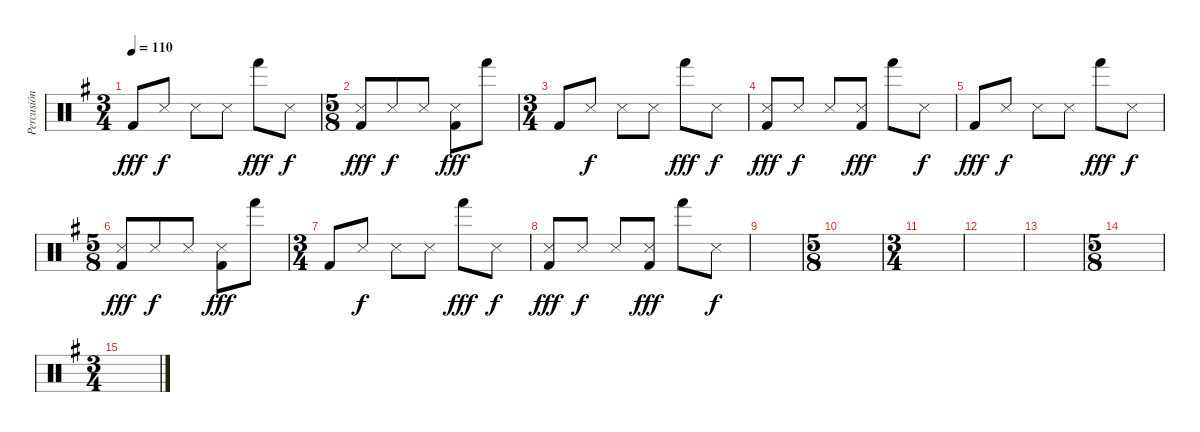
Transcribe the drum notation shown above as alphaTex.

\track ("Percusión" "Percusión") {instrument percussion}
\staff {score}
\articulation defaults
\ts (3 4)
\tempo 110
\clef neutral
\ks g "Kick (hit) 2".8{dy fff} "Metronome (hit)".8{dy f} "Metronome (hit)".8 "Metronome (hit)".8 "Hand (hit)".8{dy fff} "Metronome (hit)".8{dy f}
|
\ts (5 8)
("Metronome (hit)" "Kick (hit) 2").8{dy fff} "Metronome (hit)".8{dy f} "Metronome (hit)".8 ("Metronome (hit)" "Kick (hit) 2").8{dy fff} "Hand (hit)".8 |
\ts (3 4)
"Kick (hit) 2".8 "Metronome (hit)".8{dy f} "Metronome (hit)".8 "Metronome (hit)".8 "Hand (hit)".8{dy fff} "Metronome (hit)".8{dy f} |
("Metronome (hit)" "Kick (hit) 2").8{dy fff} "Metronome (hit)".8{dy f} "Metronome (hit)".8 ("Metronome (hit)" "Kick (hit) 2").8{dy fff} "Hand (hit)".8 "Metronome (hit)".8{dy f} |
"Kick (hit) 2".8{dy fff} "Metronome (hit)".8{dy f} "Metronome (hit)".8 "Metronome (hit)".8 "Hand (hit)".8{dy fff} "Metronome (hit)".8{dy f} |
\ts (5 8)
("Metronome (hit)" "Kick (hit) 2").8{dy fff} "Metronome (hit)".8{dy f} "Metronome (hit)".8 ("Metronome (hit)" "Kick (hit) 2").8{dy fff} "Hand (hit)".8 |
\ts (3 4)
"Kick (hit) 2".8 "Metronome (hit)".8{dy f} "Metronome (hit)".8 "Metronome (hit)".8 "Hand (hit)".8{dy fff} "Metronome (hit)".8{dy f} |
("Metronome (hit)" "Kick (hit) 2").8{dy fff} "Metronome (hit)".8{dy f} "Metronome (hit)".8 ("Metronome (hit)" "Kick (hit) 2").8{dy fff} "Hand (hit)".8 "Metronome (hit)".8{dy f} |
|
\ts (5 8)
|
\ts (3 4)
|
|
|
\ts (5 8)
|
\ts (3 4)
